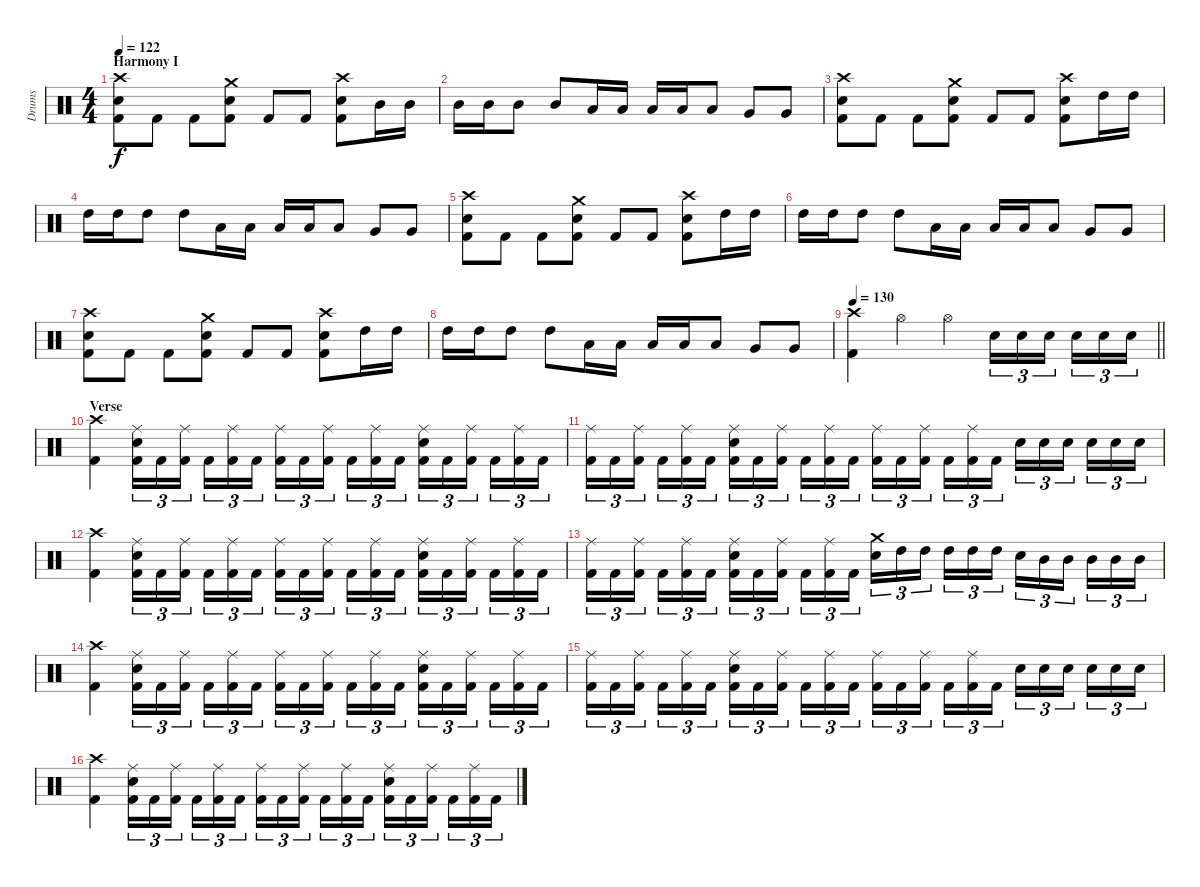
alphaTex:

\track ("Drums" "Drums") {instrument percussion}
\staff {score}
\articulation defaults
\ts (4 4)
\section ("" "Harmony I")
\tempo 122
\clef neutral
\ks c
("Crash high (hit)" "Electric Snare (hit)" "Kick (hit) 2").8{dy f} "Kick (hit) 2".8 "Kick (hit) 2".8 ("Crash medium (hit)" "Electric Snare (hit)" "Kick (hit) 2").8 "Kick (hit) 2".8 "Kick (hit) 2".8 ("Crash high (hit)" "Electric Snare (hit)" "Kick (hit) 2").8 "Mid Tom (hit)".16 "Mid Tom (hit)".16 |
"Mid Tom (hit)".16 "Mid Tom (hit)".16 "Mid Tom (hit)".8 "Mid Tom (hit)".8 "Low Tom (hit)".16 "Low Tom (hit)".16 "Low Tom (hit)".16 "Low Tom (hit)".16 "Low Tom (hit)".8 "Very Low Tom (hit)".8 "Very Low Tom (hit)".8 |
("Crash high (hit)" "Electric Snare (hit)" "Kick (hit) 2").8 "Kick (hit) 2".8 "Kick (hit) 2".8 ("Crash medium (hit)" "Electric Snare (hit)" "Kick (hit) 2").8 "Kick (hit) 2".8 "Kick (hit) 2".8 ("Crash high (hit)" "Electric Snare (hit)" "Kick (hit) 2").8 "High Tom (hit)".16 "High Tom (hit)".16 |
"High Tom (hit)".16 "High Tom (hit)".16 "High Tom (hit)".8 "High Tom (hit)".8 "Low Tom (hit)".16 "Low Tom (hit)".16 "Low Tom (hit)".16 "Low Tom (hit)".16 "Low Tom (hit)".8 "Very Low Tom (hit)".8 "Very Low Tom (hit)".8 |
("Crash high (hit)" "Electric Snare (hit)" "Kick (hit) 2").8 "Kick (hit) 2".8 "Kick (hit) 2".8 ("Crash medium (hit)" "Electric Snare (hit)" "Kick (hit) 2").8 "Kick (hit) 2".8 "Kick (hit) 2".8 ("Crash high (hit)" "Electric Snare (hit)" "Kick (hit) 2").8 "High Tom (hit)".16 "High Tom (hit)".16 |
"High Tom (hit)".16 "High Tom (hit)".16 "High Tom (hit)".8 "High Tom (hit)".8 "Low Tom (hit)".16 "Low Tom (hit)".16 "Low Tom (hit)".16 "Low Tom (hit)".16 "Low Tom (hit)".8 "Very Low Tom (hit)".8 "Very Low Tom (hit)".8 |
("Crash high (hit)" "Electric Snare (hit)" "Kick (hit) 2").8 "Kick (hit) 2".8 "Kick (hit) 2".8 ("Crash medium (hit)" "Electric Snare (hit)" "Kick (hit) 2").8 "Kick (hit) 2".8 "Kick (hit) 2".8 ("Crash high (hit)" "Electric Snare (hit)" "Kick (hit) 2").8 "High Tom (hit)".16 "High Tom (hit)".16 |
"High Tom (hit)".16 "High Tom (hit)".16 "High Tom (hit)".8 "High Tom (hit)".8 "Low Tom (hit)".16 "Low Tom (hit)".16 "Low Tom (hit)".16 "Low Tom (hit)".16 "Low Tom (hit)".8 "Very Low Tom (hit)".8 "Very Low Tom (hit)".8 |
\tempo 130
\barLineRight lightlight
("Crash high (hit)" "Kick (hit) 2").4 "Hi-Hat (open)".4 "Hi-Hat (open)".4 "Electric Snare (hit)".16{tu (3 2)} "Electric Snare (hit)".16{tu (3 2)} "Electric Snare (hit)".16{tu (3 2) beam splitsecondary} "Electric Snare (hit)".16{tu (3 2)} "Electric Snare (hit)".16{tu (3 2)} "Electric Snare (hit)".16{tu (3 2)} |
\section ("" "Verse")
("Crash high (hit)" "Kick (hit) 2").4 ("Ride (middle)" "Electric Snare (hit)" "Kick (hit) 2").16{tu (3 2)} "Kick (hit) 2".16{tu (3 2)} ("Ride (middle)" "Kick (hit) 2").16{tu (3 2) beam splitsecondary} "Kick (hit) 2".16{tu (3 2)} ("Ride (middle)" "Kick (hit) 2").16{tu (3 2)} "Kick (hit) 2".16{tu (3 2)} ("Ride (middle)" "Kick (hit) 2").16{tu (3 2)} "Kick (hit) 2".16{tu (3 2)} ("Ride (middle)" "Kick (hit) 2").16{tu (3 2) beam splitsecondary} "Kick (hit) 2".16{tu (3 2)} ("Ride (middle)" "Kick (hit) 2").16{tu (3 2)} "Kick (hit) 2".16{tu (3 2)} ("Ride (middle)" "Electric Snare (hit)" "Kick (hit) 2").16{tu (3 2)} "Kick (hit) 2".16{tu (3 2)} ("Ride (middle)" "Kick (hit) 2").16{tu (3 2) beam splitsecondary} "Kick (hit) 2".16{tu (3 2)} ("Ride (middle)" "Kick (hit) 2").16{tu (3 2)} "Kick (hit) 2".16{tu (3 2)} |
("Ride (middle)" "Kick (hit) 2").16{tu (3 2)} "Kick (hit) 2".16{tu (3 2)} ("Ride (middle)" "Kick (hit) 2").16{tu (3 2) beam splitsecondary} "Kick (hit) 2".16{tu (3 2)} ("Ride (middle)" "Kick (hit) 2").16{tu (3 2)} "Kick (hit) 2".16{tu (3 2)} ("Ride (middle)" "Electric Snare (hit)" "Kick (hit) 2").16{tu (3 2)} "Kick (hit) 2".16{tu (3 2)} ("Ride (middle)" "Kick (hit) 2").16{tu (3 2) beam splitsecondary} "Kick (hit) 2".16{tu (3 2)} ("Ride (middle)" "Kick (hit) 2").16{tu (3 2)} "Kick (hit) 2".16{tu (3 2)} ("Ride (middle)" "Kick (hit) 2").16{tu (3 2)} "Kick (hit) 2".16{tu (3 2)} ("Ride (middle)" "Kick (hit) 2").16{tu (3 2) beam splitsecondary} "Kick (hit) 2".16{tu (3 2)} ("Ride (middle)" "Kick (hit) 2").16{tu (3 2)} "Kick (hit) 2".16{tu (3 2)} "Electric Snare (hit)".16{tu (3 2)} "Electric Snare (hit)".16{tu (3 2)} "Electric Snare (hit)".16{tu (3 2) beam splitsecondary} "Electric Snare (hit)".16{tu (3 2)} "Electric Snare (hit)".16{tu (3 2)} "Electric Snare (hit)".16{tu (3 2)} |
("Crash high (hit)" "Kick (hit) 2").4 ("Ride (middle)" "Electric Snare (hit)" "Kick (hit) 2").16{tu (3 2)} "Kick (hit) 2".16{tu (3 2)} ("Ride (middle)" "Kick (hit) 2").16{tu (3 2) beam splitsecondary} "Kick (hit) 2".16{tu (3 2)} ("Ride (middle)" "Kick (hit) 2").16{tu (3 2)} "Kick (hit) 2".16{tu (3 2)} ("Ride (middle)" "Kick (hit) 2").16{tu (3 2)} "Kick (hit) 2".16{tu (3 2)} ("Ride (middle)" "Kick (hit) 2").16{tu (3 2) beam splitsecondary} "Kick (hit) 2".16{tu (3 2)} ("Ride (middle)" "Kick (hit) 2").16{tu (3 2)} "Kick (hit) 2".16{tu (3 2)} ("Ride (middle)" "Electric Snare (hit)" "Kick (hit) 2").16{tu (3 2)} "Kick (hit) 2".16{tu (3 2)} ("Ride (middle)" "Kick (hit) 2").16{tu (3 2) beam splitsecondary} "Kick (hit) 2".16{tu (3 2)} ("Ride (middle)" "Kick (hit) 2").16{tu (3 2)} "Kick (hit) 2".16{tu (3 2)} |
("Ride (middle)" "Kick (hit) 2").16{tu (3 2)} "Kick (hit) 2".16{tu (3 2)} ("Ride (middle)" "Kick (hit) 2").16{tu (3 2) beam splitsecondary} "Kick (hit) 2".16{tu (3 2)} ("Ride (middle)" "Kick (hit) 2").16{tu (3 2)} "Kick (hit) 2".16{tu (3 2)} ("Ride (middle)" "Electric Snare (hit)" "Kick (hit) 2").16{tu (3 2)} "Kick (hit) 2".16{tu (3 2)} ("Ride (middle)" "Kick (hit) 2").16{tu (3 2) beam splitsecondary} "Kick (hit) 2".16{tu (3 2)} ("Ride (middle)" "Kick (hit) 2").16{tu (3 2)} "Kick (hit) 2".16{tu (3 2)} ("Crash medium (hit)" "Electric Snare (hit)").16{tu (3 2)} "High Tom (hit)".16{tu (3 2)} "High Tom (hit)".16{tu (3 2) beam splitsecondary} "High Tom (hit)".16{tu (3 2)} "High Tom (hit)".16{tu (3 2)} "High Tom (hit)".16{tu (3 2)} "Electric Snare (hit)".16{tu (3 2)} "Mid Tom (hit)".16{tu (3 2)} "Mid Tom (hit)".16{tu (3 2) beam splitsecondary} "Mid Tom (hit)".16{tu (3 2)} "Mid Tom (hit)".16{tu (3 2)} "Mid Tom (hit)".16{tu (3 2)} |
("Crash high (hit)" "Kick (hit) 2").4 ("Ride (middle)" "Electric Snare (hit)" "Kick (hit) 2").16{tu (3 2)} "Kick (hit) 2".16{tu (3 2)} ("Ride (middle)" "Kick (hit) 2").16{tu (3 2) beam splitsecondary} "Kick (hit) 2".16{tu (3 2)} ("Ride (middle)" "Kick (hit) 2").16{tu (3 2)} "Kick (hit) 2".16{tu (3 2)} ("Ride (middle)" "Kick (hit) 2").16{tu (3 2)} "Kick (hit) 2".16{tu (3 2)} ("Ride (middle)" "Kick (hit) 2").16{tu (3 2) beam splitsecondary} "Kick (hit) 2".16{tu (3 2)} ("Ride (middle)" "Kick (hit) 2").16{tu (3 2)} "Kick (hit) 2".16{tu (3 2)} ("Ride (middle)" "Electric Snare (hit)" "Kick (hit) 2").16{tu (3 2)} "Kick (hit) 2".16{tu (3 2)} ("Ride (middle)" "Kick (hit) 2").16{tu (3 2) beam splitsecondary} "Kick (hit) 2".16{tu (3 2)} ("Ride (middle)" "Kick (hit) 2").16{tu (3 2)} "Kick (hit) 2".16{tu (3 2)} |
("Ride (middle)" "Kick (hit) 2").16{tu (3 2)} "Kick (hit) 2".16{tu (3 2)} ("Ride (middle)" "Kick (hit) 2").16{tu (3 2) beam splitsecondary} "Kick (hit) 2".16{tu (3 2)} ("Ride (middle)" "Kick (hit) 2").16{tu (3 2)} "Kick (hit) 2".16{tu (3 2)} ("Ride (middle)" "Electric Snare (hit)" "Kick (hit) 2").16{tu (3 2)} "Kick (hit) 2".16{tu (3 2)} ("Ride (middle)" "Kick (hit) 2").16{tu (3 2) beam splitsecondary} "Kick (hit) 2".16{tu (3 2)} ("Ride (middle)" "Kick (hit) 2").16{tu (3 2)} "Kick (hit) 2".16{tu (3 2)} ("Ride (middle)" "Kick (hit) 2").16{tu (3 2)} "Kick (hit) 2".16{tu (3 2)} ("Ride (middle)" "Kick (hit) 2").16{tu (3 2) beam splitsecondary} "Kick (hit) 2".16{tu (3 2)} ("Ride (middle)" "Kick (hit) 2").16{tu (3 2)} "Kick (hit) 2".16{tu (3 2)} "Electric Snare (hit)".16{tu (3 2)} "Electric Snare (hit)".16{tu (3 2)} "Electric Snare (hit)".16{tu (3 2) beam splitsecondary} "Electric Snare (hit)".16{tu (3 2)} "Electric Snare (hit)".16{tu (3 2)} "Electric Snare (hit)".16{tu (3 2)} |
("Crash high (hit)" "Kick (hit) 2").4 ("Ride (middle)" "Electric Snare (hit)" "Kick (hit) 2").16{tu (3 2)} "Kick (hit) 2".16{tu (3 2)} ("Ride (middle)" "Kick (hit) 2").16{tu (3 2) beam splitsecondary} "Kick (hit) 2".16{tu (3 2)} ("Ride (middle)" "Kick (hit) 2").16{tu (3 2)} "Kick (hit) 2".16{tu (3 2)} ("Ride (middle)" "Kick (hit) 2").16{tu (3 2)} "Kick (hit) 2".16{tu (3 2)} ("Ride (middle)" "Kick (hit) 2").16{tu (3 2) beam splitsecondary} "Kick (hit) 2".16{tu (3 2)} ("Ride (middle)" "Kick (hit) 2").16{tu (3 2)} "Kick (hit) 2".16{tu (3 2)} ("Ride (middle)" "Electric Snare (hit)" "Kick (hit) 2").16{tu (3 2)} "Kick (hit) 2".16{tu (3 2)} ("Ride (middle)" "Kick (hit) 2").16{tu (3 2) beam splitsecondary} "Kick (hit) 2".16{tu (3 2)} ("Ride (middle)" "Kick (hit) 2").16{tu (3 2)} "Kick (hit) 2".16{tu (3 2)}
